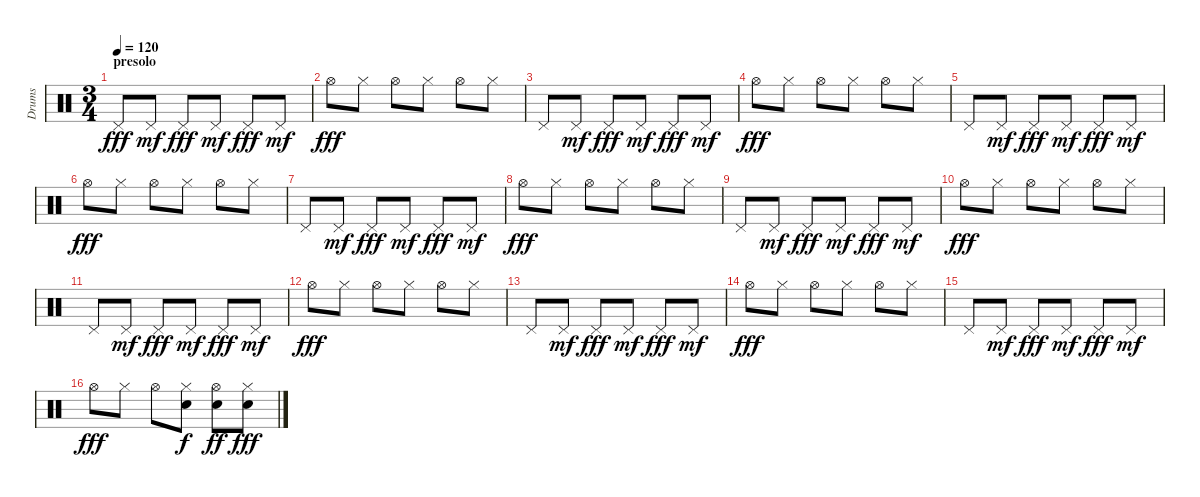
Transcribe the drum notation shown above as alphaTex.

\track ("Drums" "Drums") {instrument percussion}
\staff {score}
\articulation defaults
\ts (3 4)
\section ("" "presolo")
\tempo 120
\clef neutral
\ks c "Pedal Hi-Hat (hit)".8{dy fff} "Pedal Hi-Hat (hit)".8{dy mf} "Pedal Hi-Hat (hit)".8{dy fff} "Pedal Hi-Hat (hit)".8{dy mf} "Pedal Hi-Hat (hit)".8{dy fff} "Pedal Hi-Hat (hit)".8{dy mf}
|
"Hi-Hat (open)".8{dy fff} "Hi-Hat (closed)".8 "Hi-Hat (open)".8 "Hi-Hat (closed)".8 "Hi-Hat (open)".8 "Hi-Hat (closed)".8 |
"Pedal Hi-Hat (hit)".8 "Pedal Hi-Hat (hit)".8{dy mf} "Pedal Hi-Hat (hit)".8{dy fff} "Pedal Hi-Hat (hit)".8{dy mf} "Pedal Hi-Hat (hit)".8{dy fff} "Pedal Hi-Hat (hit)".8{dy mf} |
"Hi-Hat (open)".8{dy fff} "Hi-Hat (closed)".8 "Hi-Hat (open)".8 "Hi-Hat (closed)".8 "Hi-Hat (open)".8 "Hi-Hat (closed)".8 |
"Pedal Hi-Hat (hit)".8 "Pedal Hi-Hat (hit)".8{dy mf} "Pedal Hi-Hat (hit)".8{dy fff} "Pedal Hi-Hat (hit)".8{dy mf} "Pedal Hi-Hat (hit)".8{dy fff} "Pedal Hi-Hat (hit)".8{dy mf} |
"Hi-Hat (open)".8{dy fff} "Hi-Hat (closed)".8 "Hi-Hat (open)".8 "Hi-Hat (closed)".8 "Hi-Hat (open)".8 "Hi-Hat (closed)".8 |
"Pedal Hi-Hat (hit)".8 "Pedal Hi-Hat (hit)".8{dy mf} "Pedal Hi-Hat (hit)".8{dy fff} "Pedal Hi-Hat (hit)".8{dy mf} "Pedal Hi-Hat (hit)".8{dy fff} "Pedal Hi-Hat (hit)".8{dy mf} |
"Hi-Hat (open)".8{dy fff} "Hi-Hat (closed)".8 "Hi-Hat (open)".8 "Hi-Hat (closed)".8 "Hi-Hat (open)".8 "Hi-Hat (closed)".8 |
"Pedal Hi-Hat (hit)".8 "Pedal Hi-Hat (hit)".8{dy mf} "Pedal Hi-Hat (hit)".8{dy fff} "Pedal Hi-Hat (hit)".8{dy mf} "Pedal Hi-Hat (hit)".8{dy fff} "Pedal Hi-Hat (hit)".8{dy mf} |
"Hi-Hat (open)".8{dy fff} "Hi-Hat (closed)".8 "Hi-Hat (open)".8 "Hi-Hat (closed)".8 "Hi-Hat (open)".8 "Hi-Hat (closed)".8 |
"Pedal Hi-Hat (hit)".8 "Pedal Hi-Hat (hit)".8{dy mf} "Pedal Hi-Hat (hit)".8{dy fff} "Pedal Hi-Hat (hit)".8{dy mf} "Pedal Hi-Hat (hit)".8{dy fff} "Pedal Hi-Hat (hit)".8{dy mf} |
"Hi-Hat (open)".8{dy fff} "Hi-Hat (closed)".8 "Hi-Hat (open)".8 "Hi-Hat (closed)".8 "Hi-Hat (open)".8 "Hi-Hat (closed)".8 |
"Pedal Hi-Hat (hit)".8 "Pedal Hi-Hat (hit)".8{dy mf} "Pedal Hi-Hat (hit)".8{dy fff} "Pedal Hi-Hat (hit)".8{dy mf} "Pedal Hi-Hat (hit)".8{dy fff} "Pedal Hi-Hat (hit)".8{dy mf} |
"Hi-Hat (open)".8{dy fff} "Hi-Hat (closed)".8 "Hi-Hat (open)".8 "Hi-Hat (closed)".8 "Hi-Hat (open)".8 "Hi-Hat (closed)".8 |
"Pedal Hi-Hat (hit)".8 "Pedal Hi-Hat (hit)".8{dy mf} "Pedal Hi-Hat (hit)".8{dy fff} "Pedal Hi-Hat (hit)".8{dy mf} "Pedal Hi-Hat (hit)".8{dy fff} "Pedal Hi-Hat (hit)".8{dy mf} |
"Hi-Hat (open)".8{dy fff} "Hi-Hat (closed)".8 "Hi-Hat (open)".8 ("Hi-Hat (closed)" "Electric Snare (hit)").8{dy f} ("Hi-Hat (open)" "Electric Snare (hit)").8{dy ff} ("Hi-Hat (closed)" "Electric Snare (hit)").8{dy fff}
